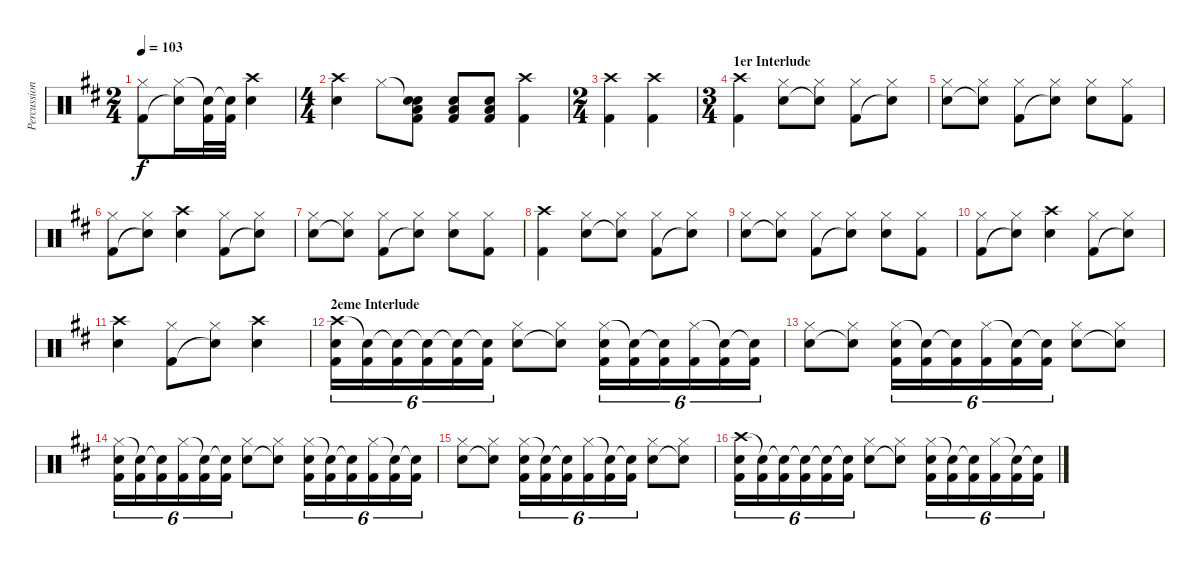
\track ("Percussions" "Percussion") {instrument percussion}
\staff {score}
\articulation defaults
\ts (2 4)
\tempo 103
\clef neutral
\ks bminor
("Hi-Hat (closed)" "Kick (hit) 2").8{dy f} ("Hi-Hat (closed)" "Snare (hit)"{t}).16 ("Snare (hit)"{t} "Kick (hit) 2").32 ("Snare (hit)"{t} "Kick (hit) 2").32 ("Crash high (hit)" "Snare (hit) 2").4 |
\ts (4 4)
("Crash high (hit)" "Snare (hit) 2").4 "Hi-Hat (closed)".8 ("Snare (hit)"{t} "Low Tom (hit)" "Snare (hit) 2" "Kick (hit) 2").8 ("Low Tom (hit)" "Snare (hit) 2" "Kick (hit) 2").8 ("Low Tom (hit)" "Snare (hit) 2" "Kick (hit) 2").8 ("Crash high (hit)" "Kick (hit) 2").4 |
\ts (2 4)
("Crash high (hit)" "Kick (hit) 2").4 ("Crash high (hit)" "Kick (hit) 2").4 |
\ts (3 4)
\section ("" "1er Interlude")
("Crash high (hit)" "Kick (hit) 2").4 ("Hi-Hat (closed)" "Snare (hit) 2").8 ("Hi-Hat (closed)" "Snare (hit)"{t}).8 ("Hi-Hat (closed)" "Kick (hit) 2").8 ("Hi-Hat (closed)" "Snare (hit)"{t}).8 |
("Hi-Hat (closed)" "Snare (hit) 2").8 ("Hi-Hat (closed)" "Snare (hit)"{t}).8 ("Hi-Hat (closed)" "Kick (hit) 2").8 ("Hi-Hat (closed)" "Snare (hit)"{t}).8 ("Hi-Hat (closed)" "Snare (hit) 2").8 ("Hi-Hat (closed)" "Kick (hit) 2").8 |
("Hi-Hat (closed)" "Kick (hit) 2").8 ("Hi-Hat (closed)" "Snare (hit)"{t}).8 ("Crash high (hit)" "Snare (hit) 2").4 ("Hi-Hat (closed)" "Kick (hit) 2").8 ("Hi-Hat (closed)" "Snare (hit)"{t}).8 |
("Hi-Hat (closed)" "Snare (hit) 2").8 ("Hi-Hat (closed)" "Snare (hit)"{t}).8 ("Hi-Hat (closed)" "Kick (hit) 2").8 ("Hi-Hat (closed)" "Snare (hit)"{t}).8 ("Hi-Hat (closed)" "Snare (hit) 2").8 ("Hi-Hat (closed)" "Kick (hit) 2").8 |
("Crash high (hit)" "Kick (hit) 2").4 ("Hi-Hat (closed)" "Snare (hit) 2").8 ("Hi-Hat (closed)" "Snare (hit)"{t}).8 ("Hi-Hat (closed)" "Kick (hit) 2").8 ("Hi-Hat (closed)" "Snare (hit)"{t}).8 |
("Hi-Hat (closed)" "Snare (hit) 2").8 ("Hi-Hat (closed)" "Snare (hit)"{t}).8 ("Hi-Hat (closed)" "Kick (hit) 2").8 ("Hi-Hat (closed)" "Snare (hit)"{t}).8 ("Hi-Hat (closed)" "Snare (hit) 2").8 ("Hi-Hat (closed)" "Kick (hit) 2").8 |
("Hi-Hat (closed)" "Kick (hit) 2").8 ("Hi-Hat (closed)" "Snare (hit)"{t}).8 ("Crash high (hit)" "Snare (hit) 2").4 ("Hi-Hat (closed)" "Kick (hit) 2").8 ("Hi-Hat (closed)" "Snare (hit)"{t}).8 |
("Crash high (hit)" "Snare (hit) 2").4 ("Hi-Hat (closed)" "Kick (hit) 2").8 ("Hi-Hat (closed)" "Snare (hit)"{t}).8 ("Crash high (hit)" "Snare (hit) 2").4 |
\section ("" "2eme Interlude")
("Crash high (hit)" "Snare (hit) 2" "Kick (hit) 2").16{tu (6 4)} ("Snare (hit)"{t} "Kick (hit) 2").16{tu (6 4)} ("Snare (hit)"{t} "Kick (hit) 2").16{tu (6 4)} ("Snare (hit)"{t} "Kick (hit) 2").16{tu (6 4)} ("Snare (hit)"{t} "Kick (hit) 2").16{tu (6 4)} ("Snare (hit)"{t} "Kick (hit) 2").16{tu (6 4)} ("Hi-Hat (closed)" "Snare (hit) 2").8 ("Hi-Hat (closed)" "Snare (hit)"{t}).8 ("Hi-Hat (closed)" "Snare (hit) 2" "Kick (hit) 2").16{tu (6 4)} ("Snare (hit)"{t} "Kick (hit) 2").16{tu (6 4)} ("Snare (hit)"{t} "Kick (hit) 2").16{tu (6 4)} ("Hi-Hat (closed)" "Kick (hit) 2").16{tu (6 4)} ("Snare (hit)"{t} "Kick (hit) 2").16{tu (6 4)} ("Snare (hit)"{t} "Kick (hit) 2").16{tu (6 4)} |
("Hi-Hat (closed)" "Snare (hit) 2").8 ("Hi-Hat (closed)" "Snare (hit)"{t}).8 ("Hi-Hat (closed)" "Snare (hit) 2" "Kick (hit) 2").16{tu (6 4)} ("Snare (hit)"{t} "Kick (hit) 2").16{tu (6 4)} ("Snare (hit)"{t} "Kick (hit) 2").16{tu (6 4)} ("Hi-Hat (closed)" "Kick (hit) 2").16{tu (6 4)} ("Snare (hit)"{t} "Kick (hit) 2").16{tu (6 4)} ("Snare (hit)"{t} "Kick (hit) 2").16{tu (6 4)} ("Hi-Hat (closed)" "Snare (hit) 2").8 ("Hi-Hat (closed)" "Snare (hit)"{t}).8 |
("Hi-Hat (closed)" "Snare (hit) 2" "Kick (hit) 2").16{tu (6 4)} ("Snare (hit)"{t} "Kick (hit) 2").16{tu (6 4)} ("Snare (hit)"{t} "Kick (hit) 2").16{tu (6 4)} ("Hi-Hat (closed)" "Kick (hit) 2").16{tu (6 4)} ("Snare (hit)"{t} "Kick (hit) 2").16{tu (6 4)} ("Snare (hit)"{t} "Kick (hit) 2").16{tu (6 4)} ("Hi-Hat (closed)" "Snare (hit) 2").8 ("Hi-Hat (closed)" "Snare (hit)"{t}).8 ("Hi-Hat (closed)" "Snare (hit) 2" "Kick (hit) 2").16{tu (6 4)} ("Snare (hit)"{t} "Kick (hit) 2").16{tu (6 4)} ("Snare (hit)"{t} "Kick (hit) 2").16{tu (6 4)} ("Hi-Hat (closed)" "Kick (hit) 2").16{tu (6 4)} ("Snare (hit)"{t} "Kick (hit) 2").16{tu (6 4)} ("Snare (hit)"{t} "Kick (hit) 2").16{tu (6 4)} |
("Hi-Hat (closed)" "Snare (hit) 2").8 ("Hi-Hat (closed)" "Snare (hit)"{t}).8 ("Hi-Hat (closed)" "Snare (hit) 2" "Kick (hit) 2").16{tu (6 4)} ("Snare (hit)"{t} "Kick (hit) 2").16{tu (6 4)} ("Snare (hit)"{t} "Kick (hit) 2").16{tu (6 4)} ("Hi-Hat (closed)" "Kick (hit) 2").16{tu (6 4)} ("Snare (hit)"{t} "Kick (hit) 2").16{tu (6 4)} ("Snare (hit)"{t} "Kick (hit) 2").16{tu (6 4)} ("Hi-Hat (closed)" "Snare (hit) 2").8 ("Hi-Hat (closed)" "Snare (hit)"{t}).8 |
("Crash high (hit)" "Snare (hit) 2" "Kick (hit) 2").16{tu (6 4)} ("Snare (hit)"{t} "Kick (hit) 2").16{tu (6 4)} ("Snare (hit)"{t} "Kick (hit) 2").16{tu (6 4)} ("Snare (hit)"{t} "Kick (hit) 2").16{tu (6 4)} ("Snare (hit)"{t} "Kick (hit) 2").16{tu (6 4)} ("Snare (hit)"{t} "Kick (hit) 2").16{tu (6 4)} ("Hi-Hat (closed)" "Snare (hit) 2").8 ("Hi-Hat (closed)" "Snare (hit)"{t}).8 ("Hi-Hat (closed)" "Snare (hit) 2" "Kick (hit) 2").16{tu (6 4)} ("Snare (hit)"{t} "Kick (hit) 2").16{tu (6 4)} ("Snare (hit)"{t} "Kick (hit) 2").16{tu (6 4)} ("Hi-Hat (closed)" "Kick (hit) 2").16{tu (6 4)} ("Snare (hit)"{t} "Kick (hit) 2").16{tu (6 4)} ("Snare (hit)"{t} "Kick (hit) 2").16{tu (6 4)}
